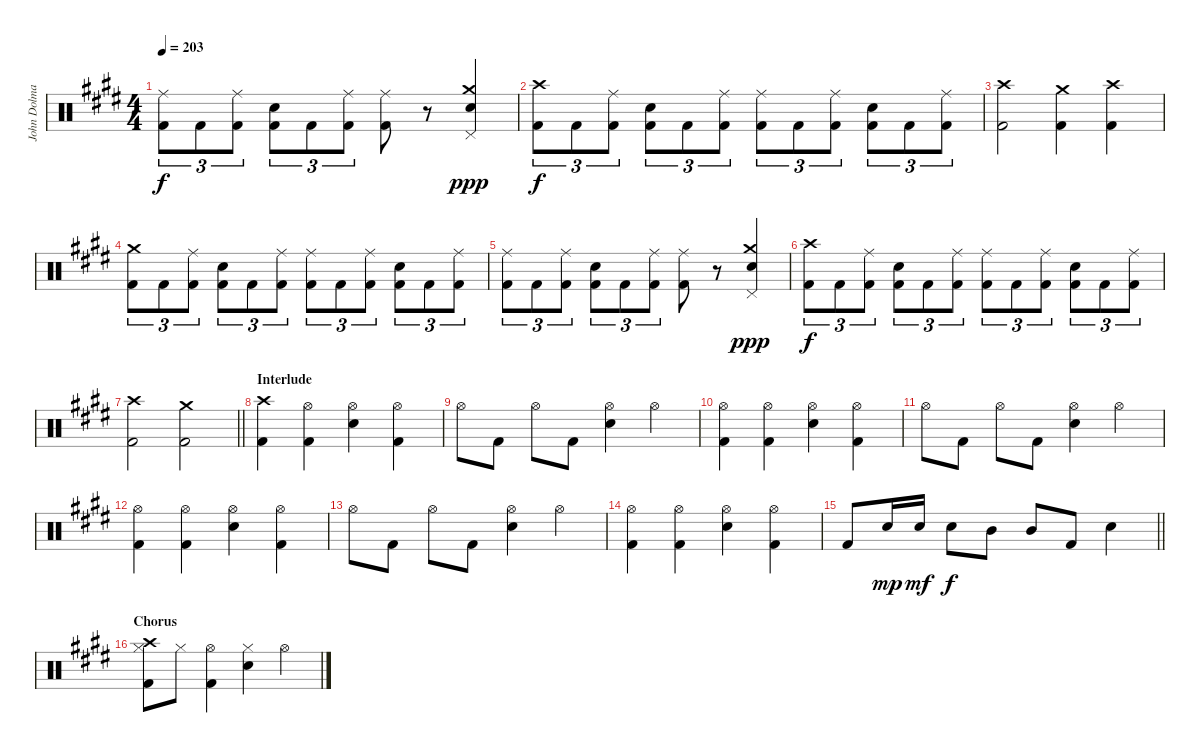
\track ("John Dolmayan [Drums]" "John Dolma") {instrument percussion}
\staff {score}
\articulation defaults
\ts (4 4)
\tempo 203
\clef neutral
\ks c#minor
("Ride (middle)" "Kick (hit) 2").8{tu (3 2) dy f} "Kick (hit) 2".8{tu (3 2)} ("Ride (middle)" "Kick (hit) 2").8{tu (3 2)} ("Electric Snare (hit)" "Kick (hit) 2").8{tu (3 2)} "Kick (hit) 2".8{tu (3 2)} ("Ride (middle)" "Kick (hit) 2").8{tu (3 2)} ("Ride (middle)" "Kick (hit) 2").8 r.8 ("Crash medium (hit)" "Pedal Hi-Hat (hit)" "Electric Snare (hit)").4{dy ppp} |
("Crash high (hit)" "Kick (hit) 2").8{tu (3 2) dy f} "Kick (hit) 2".8{tu (3 2)} ("Ride (middle)" "Kick (hit) 2").8{tu (3 2)} ("Electric Snare (hit)" "Kick (hit) 2").8{tu (3 2)} "Kick (hit) 2".8{tu (3 2)} ("Ride (middle)" "Kick (hit) 2").8{tu (3 2)} ("Ride (middle)" "Kick (hit) 2").8{tu (3 2)} "Kick (hit) 2".8{tu (3 2)} ("Ride (middle)" "Kick (hit) 2").8{tu (3 2)} ("Electric Snare (hit)" "Kick (hit) 2").8{tu (3 2)} "Kick (hit) 2".8{tu (3 2)} ("Ride (middle)" "Kick (hit) 2").8{tu (3 2)} |
("Crash high (hit)" "Kick (hit) 2").2 ("Crash medium (hit)" "Kick (hit) 2").4 ("Crash high (hit)" "Kick (hit) 2").4 |
("Crash medium (hit)" "Kick (hit) 2").8{tu (3 2)} "Kick (hit) 2".8{tu (3 2)} ("Ride (middle)" "Kick (hit) 2").8{tu (3 2)} ("Electric Snare (hit)" "Kick (hit) 2").8{tu (3 2)} "Kick (hit) 2".8{tu (3 2)} ("Ride (middle)" "Kick (hit) 2").8{tu (3 2)} ("Ride (middle)" "Kick (hit) 2").8{tu (3 2)} "Kick (hit) 2".8{tu (3 2)} ("Ride (middle)" "Kick (hit) 2").8{tu (3 2)} ("Electric Snare (hit)" "Kick (hit) 2").8{tu (3 2)} "Kick (hit) 2".8{tu (3 2)} ("Ride (middle)" "Kick (hit) 2").8{tu (3 2)} |
("Ride (middle)" "Kick (hit) 2").8{tu (3 2)} "Kick (hit) 2".8{tu (3 2)} ("Ride (middle)" "Kick (hit) 2").8{tu (3 2)} ("Electric Snare (hit)" "Kick (hit) 2").8{tu (3 2)} "Kick (hit) 2".8{tu (3 2)} ("Ride (middle)" "Kick (hit) 2").8{tu (3 2)} ("Ride (middle)" "Kick (hit) 2").8 r.8 ("Crash medium (hit)" "Pedal Hi-Hat (hit)" "Electric Snare (hit)").4{dy ppp} |
("Crash high (hit)" "Kick (hit) 2").8{tu (3 2) dy f} "Kick (hit) 2".8{tu (3 2)} ("Ride (middle)" "Kick (hit) 2").8{tu (3 2)} ("Electric Snare (hit)" "Kick (hit) 2").8{tu (3 2)} "Kick (hit) 2".8{tu (3 2)} ("Ride (middle)" "Kick (hit) 2").8{tu (3 2)} ("Ride (middle)" "Kick (hit) 2").8{tu (3 2)} "Kick (hit) 2".8{tu (3 2)} ("Ride (middle)" "Kick (hit) 2").8{tu (3 2)} ("Electric Snare (hit)" "Kick (hit) 2").8{tu (3 2)} "Kick (hit) 2".8{tu (3 2)} ("Ride (middle)" "Kick (hit) 2").8{tu (3 2)} |
\barLineRight lightlight
("Crash high (hit)" "Kick (hit) 2").2 ("Crash medium (hit)" "Kick (hit) 2").2 |
\section ("" "Interlude")
("Crash high (hit)" "Kick (hit) 2").4 ("Hi-Hat (open)" "Kick (hit) 2").4 ("Hi-Hat (open)" "Electric Snare (hit)").4 ("Hi-Hat (open)" "Kick (hit) 2").4 |
"Hi-Hat (open)".8 "Kick (hit) 2".8 "Hi-Hat (open)".8 "Kick (hit) 2".8 ("Hi-Hat (open)" "Electric Snare (hit)").4 "Hi-Hat (open)".4 |
("Hi-Hat (open)" "Kick (hit) 2").4 ("Hi-Hat (open)" "Kick (hit) 2").4 ("Hi-Hat (open)" "Electric Snare (hit)").4 ("Hi-Hat (open)" "Kick (hit) 2").4 |
"Hi-Hat (open)".8 "Kick (hit) 2".8 "Hi-Hat (open)".8 "Kick (hit) 2".8 ("Hi-Hat (open)" "Electric Snare (hit)").4 "Hi-Hat (open)".4 |
("Hi-Hat (open)" "Kick (hit) 2").4 ("Hi-Hat (open)" "Kick (hit) 2").4 ("Hi-Hat (open)" "Electric Snare (hit)").4 ("Hi-Hat (open)" "Kick (hit) 2").4 |
"Hi-Hat (open)".8 "Kick (hit) 2".8 "Hi-Hat (open)".8 "Kick (hit) 2".8 ("Hi-Hat (open)" "Electric Snare (hit)").4 "Hi-Hat (open)".4 |
("Hi-Hat (open)" "Kick (hit) 2").4 ("Hi-Hat (open)" "Kick (hit) 2").4 ("Hi-Hat (open)" "Electric Snare (hit)").4 ("Hi-Hat (open)" "Kick (hit) 2").4 |
\barLineRight lightlight "Kick (hit) 2".8 "Electric Snare (hit)".16{dy mp} "Electric Snare (hit)".16{dy mf} "Electric Snare (hit)".8{dy f} "Mid Tom (hit)".8 "Mid Tom (hit)".8 "Kick (hit) 2".8 "Electric Snare (hit)".4
|
\section ("" "Chorus")
("Crash high (hit)" "Hi-Hat (closed)" "Kick (hit) 2").8 "Hi-Hat (closed)".8 ("Hi-Hat (open)" "Kick (hit) 2").4 ("Hi-Hat (closed)" "Electric Snare (hit)").4 "Hi-Hat (open)".4
